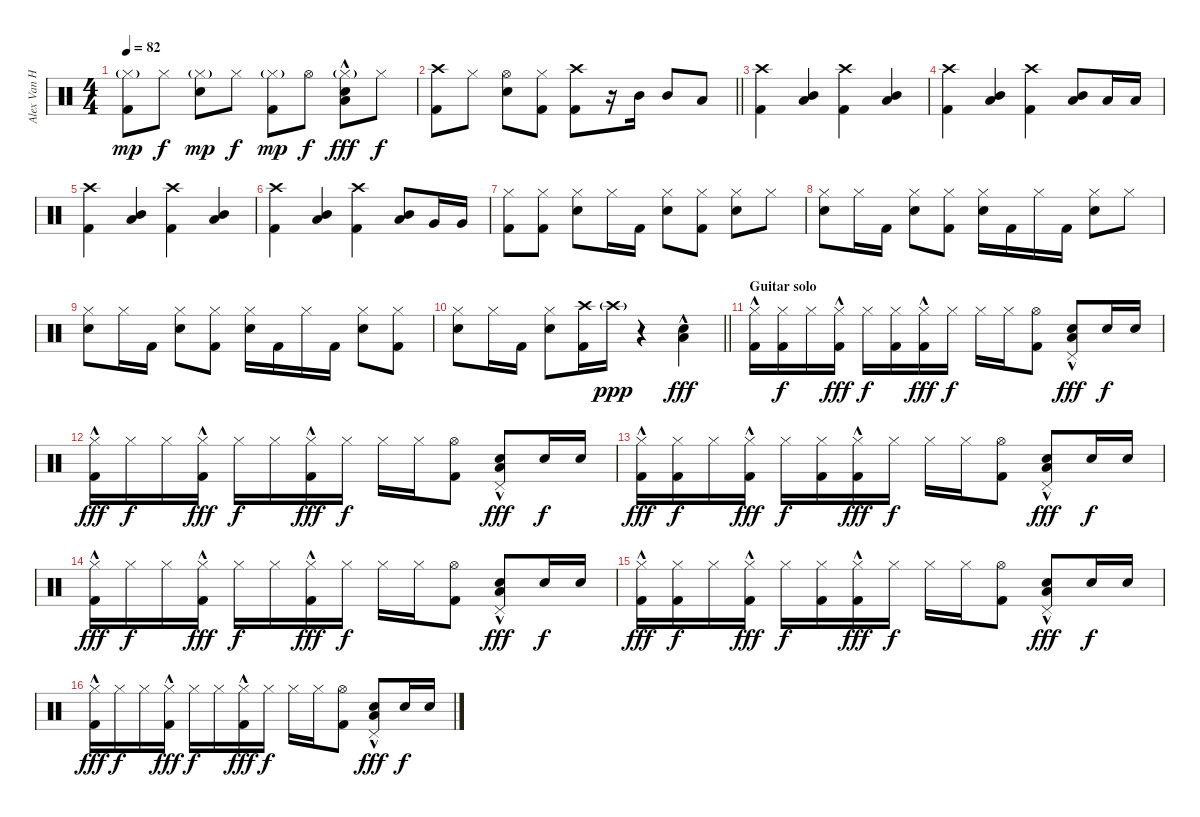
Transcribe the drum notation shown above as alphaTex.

\track ("Alex Van Halen" "Alex Van H") {instrument percussion}
\staff {score}
\articulation defaults
\ts (4 4)
\tempo 82
\clef neutral
\ks c
("Hi-Hat (closed)"{g} "Kick (hit) 2").8{dy mp} "Hi-Hat (closed)".8{dy f} ("Hi-Hat (closed)"{g} "Electric Snare (hit)").8{dy mp} "Hi-Hat (closed)".8{dy f} ("Hi-Hat (closed)"{g} "Kick (hit) 2").8{dy mp} "Hi-Hat (open)".8{dy f} ("Hi-Hat (closed)"{g} "Electric Snare (hit)" "Low Tom (hit)"{hac}).8{dy fff} "Hi-Hat (closed)".8{dy f} |
\barLineRight lightlight
("Crash high (hit)" "Kick (hit) 2").8 "Hi-Hat (closed)".8 ("Hi-Hat (open)" "Electric Snare (hit)").8 ("Hi-Hat (closed)" "Kick (hit) 2").8 ("Crash high (hit)" "Kick (hit) 2").8 r.16 "Mid Tom (hit)".16 "Mid Tom (hit)".8 "Low Tom (hit)".8 |
("Crash high (hit)" "Kick (hit) 2").4 ("Mid Tom (hit)" "Low Tom (hit)").4 ("Crash high (hit)" "Kick (hit) 2").4 ("Mid Tom (hit)" "Low Tom (hit)").4 |
("Crash high (hit)" "Kick (hit) 2").4 ("Mid Tom (hit)" "Low Tom (hit)").4 ("Crash high (hit)" "Kick (hit) 2").4 ("Mid Tom (hit)" "Low Tom (hit)").8 "Low Tom (hit)".16 "Low Tom (hit)".16 |
("Crash high (hit)" "Kick (hit) 2").4 ("Mid Tom (hit)" "Low Tom (hit)").4 ("Crash high (hit)" "Kick (hit) 2").4 ("Mid Tom (hit)" "Low Tom (hit)").4 |
("Crash high (hit)" "Kick (hit) 2").4 ("Mid Tom (hit)" "Low Tom (hit)").4 ("Crash high (hit)" "Kick (hit) 2").4 ("Mid Tom (hit)" "Low Tom (hit)").8 "Very Low Tom (hit)".16 "Very Low Tom (hit)".16 |
("Hi-Hat (closed)" "Kick (hit) 2").8 ("Hi-Hat (closed)" "Kick (hit) 2").8 ("Hi-Hat (closed)" "Electric Snare (hit)").8 "Hi-Hat (closed)".16 "Kick (hit) 2".16 ("Hi-Hat (closed)" "Electric Snare (hit)").8 ("Hi-Hat (closed)" "Kick (hit) 2").8 ("Hi-Hat (closed)" "Electric Snare (hit)").8 "Hi-Hat (closed)".8 |
("Hi-Hat (closed)" "Electric Snare (hit)").8 "Hi-Hat (closed)".16 "Kick (hit) 2".16 ("Hi-Hat (closed)" "Electric Snare (hit)").8 ("Hi-Hat (closed)" "Kick (hit) 2").8 ("Hi-Hat (closed)" "Electric Snare (hit)").16 "Kick (hit) 2".16 "Hi-Hat (closed)".16 "Kick (hit) 2".16 ("Hi-Hat (closed)" "Electric Snare (hit)").8 "Hi-Hat (closed)".8 |
("Hi-Hat (closed)" "Electric Snare (hit)").8 "Hi-Hat (closed)".16 "Kick (hit) 2".16 ("Hi-Hat (closed)" "Electric Snare (hit)").8 ("Hi-Hat (closed)" "Kick (hit) 2").8 ("Hi-Hat (closed)" "Electric Snare (hit)").16 "Kick (hit) 2".16 "Hi-Hat (closed)".16 "Kick (hit) 2".16 ("Hi-Hat (closed)" "Electric Snare (hit)").8 ("Hi-Hat (closed)" "Kick (hit) 2").8 |
\barLineRight lightlight
("Hi-Hat (closed)" "Electric Snare (hit)").8 "Hi-Hat (closed)".16 "Kick (hit) 2".16 ("Hi-Hat (closed)" "Electric Snare (hit)").8 ("Crash high (hit)" "Kick (hit) 2").16 "Crash high (hit)"{g}.16{dy ppp} r.4 ("Electric Snare (hit)" "Low Tom (hit)"{hac}).4{dy fff} |
\section ("" "Guitar solo")
("Hi-Hat (closed)"{hac} "Kick (hit) 2").16 ("Hi-Hat (closed)" "Kick (hit) 2").16{dy f} "Hi-Hat (closed)".16 ("Hi-Hat (closed)"{hac} "Kick (hit) 2").16{dy fff} "Hi-Hat (closed)".16{dy f} ("Hi-Hat (closed)" "Kick (hit) 2").16 ("Hi-Hat (closed)"{hac} "Kick (hit) 2").16{dy fff} "Hi-Hat (closed)".16{dy f} "Hi-Hat (closed)".16 "Hi-Hat (closed)".16 ("Hi-Hat (open)" "Kick (hit) 2").8 ("Pedal Hi-Hat (hit)" "Electric Snare (hit)" "Low Tom (hit)"{hac}).8{dy fff} "Electric Snare (hit)".16{dy f} "Electric Snare (hit)".16 |
("Hi-Hat (closed)"{hac} "Kick (hit) 2").16{dy fff} "Hi-Hat (closed)".16{dy f} "Hi-Hat (closed)".16 ("Hi-Hat (closed)"{hac} "Kick (hit) 2").16{dy fff} "Hi-Hat (closed)".16{dy f} "Hi-Hat (closed)".16 ("Hi-Hat (closed)"{hac} "Kick (hit) 2").16{dy fff} "Hi-Hat (closed)".16{dy f} "Hi-Hat (closed)".16 "Hi-Hat (closed)".16 ("Hi-Hat (open)" "Kick (hit) 2").8 ("Pedal Hi-Hat (hit)" "Electric Snare (hit)" "Low Tom (hit)"{hac}).8{dy fff} "Electric Snare (hit)".16{dy f} "Electric Snare (hit)".16 |
("Hi-Hat (closed)"{hac} "Kick (hit) 2").16{dy fff} ("Hi-Hat (closed)" "Kick (hit) 2").16{dy f} "Hi-Hat (closed)".16 ("Hi-Hat (closed)"{hac} "Kick (hit) 2").16{dy fff} "Hi-Hat (closed)".16{dy f} ("Hi-Hat (closed)" "Kick (hit) 2").16 ("Hi-Hat (closed)"{hac} "Kick (hit) 2").16{dy fff} "Hi-Hat (closed)".16{dy f} "Hi-Hat (closed)".16 "Hi-Hat (closed)".16 ("Hi-Hat (open)" "Kick (hit) 2").8 ("Pedal Hi-Hat (hit)" "Electric Snare (hit)" "Low Tom (hit)"{hac}).8{dy fff} "Electric Snare (hit)".16{dy f} "Electric Snare (hit)".16 |
("Hi-Hat (closed)"{hac} "Kick (hit) 2").16{dy fff} "Hi-Hat (closed)".16{dy f} "Hi-Hat (closed)".16 ("Hi-Hat (closed)"{hac} "Kick (hit) 2").16{dy fff} "Hi-Hat (closed)".16{dy f} "Hi-Hat (closed)".16 ("Hi-Hat (closed)"{hac} "Kick (hit) 2").16{dy fff} "Hi-Hat (closed)".16{dy f} "Hi-Hat (closed)".16 "Hi-Hat (closed)".16 ("Hi-Hat (open)" "Kick (hit) 2").8 ("Pedal Hi-Hat (hit)" "Electric Snare (hit)" "Low Tom (hit)"{hac}).8{dy fff} "Electric Snare (hit)".16{dy f} "Electric Snare (hit)".16 |
("Hi-Hat (closed)"{hac} "Kick (hit) 2").16{dy fff} ("Hi-Hat (closed)" "Kick (hit) 2").16{dy f} "Hi-Hat (closed)".16 ("Hi-Hat (closed)"{hac} "Kick (hit) 2").16{dy fff} "Hi-Hat (closed)".16{dy f} ("Hi-Hat (closed)" "Kick (hit) 2").16 ("Hi-Hat (closed)"{hac} "Kick (hit) 2").16{dy fff} "Hi-Hat (closed)".16{dy f} "Hi-Hat (closed)".16 "Hi-Hat (closed)".16 ("Hi-Hat (open)" "Kick (hit) 2").8 ("Pedal Hi-Hat (hit)" "Electric Snare (hit)" "Low Tom (hit)"{hac}).8{dy fff} "Electric Snare (hit)".16{dy f} "Electric Snare (hit)".16 |
("Hi-Hat (closed)"{hac} "Kick (hit) 2").16{dy fff} "Hi-Hat (closed)".16{dy f} "Hi-Hat (closed)".16 ("Hi-Hat (closed)"{hac} "Kick (hit) 2").16{dy fff} "Hi-Hat (closed)".16{dy f} "Hi-Hat (closed)".16 ("Hi-Hat (closed)"{hac} "Kick (hit) 2").16{dy fff} "Hi-Hat (closed)".16{dy f} "Hi-Hat (closed)".16 "Hi-Hat (closed)".16 ("Hi-Hat (open)" "Kick (hit) 2").8 ("Pedal Hi-Hat (hit)" "Electric Snare (hit)" "Low Tom (hit)"{hac}).8{dy fff} "Electric Snare (hit)".16{dy f} "Electric Snare (hit)".16
